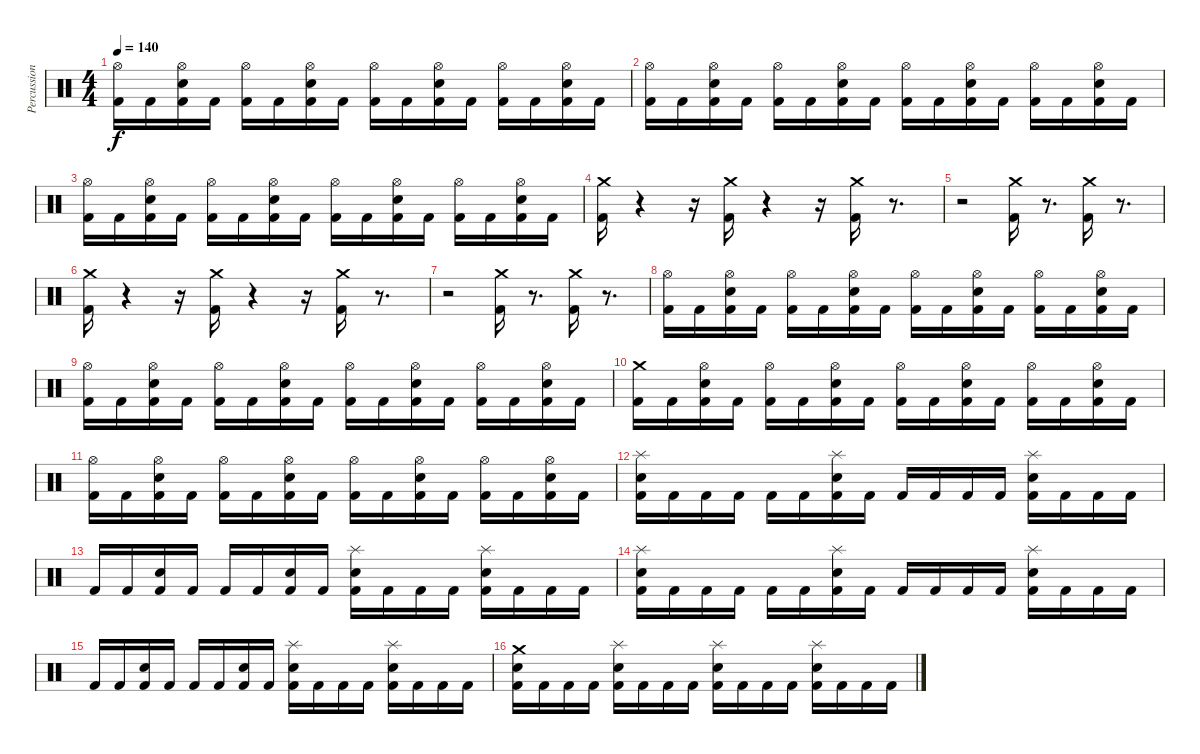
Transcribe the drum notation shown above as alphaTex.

\track ("Percussion" "Percussion") {instrument percussion}
\staff {score}
\articulation defaults
\ts (4 4)
\tempo 140
\clef neutral
\ks c
("Kick (hit) 2" "Hi-Hat (open)").16{dy f} "Kick (hit) 2".16 ("Kick (hit) 2" "Electric Snare (hit)" "Hi-Hat (open)").16 "Kick (hit) 2".16 ("Kick (hit) 2" "Hi-Hat (open)").16 "Kick (hit) 2".16 ("Kick (hit) 2" "Electric Snare (hit)" "Hi-Hat (open)").16 "Kick (hit) 2".16 ("Kick (hit) 2" "Hi-Hat (open)").16 "Kick (hit) 2".16 ("Kick (hit) 2" "Electric Snare (hit)" "Hi-Hat (open)").16 "Kick (hit) 2".16 ("Kick (hit) 2" "Hi-Hat (open)").16 "Kick (hit) 2".16 ("Kick (hit) 2" "Electric Snare (hit)" "Hi-Hat (open)").16 "Kick (hit) 2".16 |
("Kick (hit) 2" "Hi-Hat (open)").16 "Kick (hit) 2".16 ("Kick (hit) 2" "Electric Snare (hit)" "Hi-Hat (open)").16 "Kick (hit) 2".16 ("Kick (hit) 2" "Hi-Hat (open)").16 "Kick (hit) 2".16 ("Kick (hit) 2" "Electric Snare (hit)" "Hi-Hat (open)").16 "Kick (hit) 2".16 ("Kick (hit) 2" "Hi-Hat (open)").16 "Kick (hit) 2".16 ("Kick (hit) 2" "Electric Snare (hit)" "Hi-Hat (open)").16 "Kick (hit) 2".16 ("Kick (hit) 2" "Hi-Hat (open)").16 "Kick (hit) 2".16 ("Kick (hit) 2" "Electric Snare (hit)" "Hi-Hat (open)").16 "Kick (hit) 2".16 |
("Kick (hit) 2" "Hi-Hat (open)").16 "Kick (hit) 2".16 ("Kick (hit) 2" "Electric Snare (hit)" "Hi-Hat (open)").16 "Kick (hit) 2".16 ("Kick (hit) 2" "Hi-Hat (open)").16 "Kick (hit) 2".16 ("Kick (hit) 2" "Electric Snare (hit)" "Hi-Hat (open)").16 "Kick (hit) 2".16 ("Kick (hit) 2" "Hi-Hat (open)").16 "Kick (hit) 2".16 ("Kick (hit) 2" "Electric Snare (hit)" "Hi-Hat (open)").16 "Kick (hit) 2".16 ("Kick (hit) 2" "Hi-Hat (open)").16 "Kick (hit) 2".16 ("Kick (hit) 2" "Electric Snare (hit)" "Hi-Hat (open)").16 "Kick (hit) 2".16 |
("Kick (hit) 2" "Crash medium (hit)").16 r.4 r.16 ("Kick (hit) 2" "Crash medium (hit)").16 r.4 r.16 ("Kick (hit) 2" "Crash medium (hit)").16 r.8{d} |
r.2 ("Kick (hit) 2" "Crash medium (hit)").16 r.8{d} ("Kick (hit) 2" "Crash medium (hit)").16 r.8{d} |
("Kick (hit) 2" "Crash medium (hit)").16 r.4 r.16 ("Kick (hit) 2" "Crash medium (hit)").16 r.4 r.16 ("Kick (hit) 2" "Crash medium (hit)").16 r.8{d} |
r.2 ("Kick (hit) 2" "Crash medium (hit)").16 r.8{d} ("Kick (hit) 2" "Crash medium (hit)").16 r.8{d} |
("Kick (hit) 2" "Hi-Hat (open)").16 "Kick (hit) 2".16 ("Kick (hit) 2" "Electric Snare (hit)" "Hi-Hat (open)").16 "Kick (hit) 2".16 ("Kick (hit) 2" "Hi-Hat (open)").16 "Kick (hit) 2".16 ("Kick (hit) 2" "Electric Snare (hit)" "Hi-Hat (open)").16 "Kick (hit) 2".16 ("Kick (hit) 2" "Hi-Hat (open)").16 "Kick (hit) 2".16 ("Kick (hit) 2" "Electric Snare (hit)" "Hi-Hat (open)").16 "Kick (hit) 2".16 ("Kick (hit) 2" "Hi-Hat (open)").16 "Kick (hit) 2".16 ("Kick (hit) 2" "Electric Snare (hit)" "Hi-Hat (open)").16 "Kick (hit) 2".16 |
("Kick (hit) 2" "Hi-Hat (open)").16 "Kick (hit) 2".16 ("Kick (hit) 2" "Electric Snare (hit)" "Hi-Hat (open)").16 "Kick (hit) 2".16 ("Kick (hit) 2" "Hi-Hat (open)").16 "Kick (hit) 2".16 ("Kick (hit) 2" "Electric Snare (hit)" "Hi-Hat (open)").16 "Kick (hit) 2".16 ("Kick (hit) 2" "Hi-Hat (open)").16 "Kick (hit) 2".16 ("Kick (hit) 2" "Electric Snare (hit)" "Hi-Hat (open)").16 "Kick (hit) 2".16 ("Kick (hit) 2" "Hi-Hat (open)").16 "Kick (hit) 2".16 ("Kick (hit) 2" "Electric Snare (hit)" "Hi-Hat (open)").16 "Kick (hit) 2".16 |
("Kick (hit) 2" "Crash medium (hit)").16 "Kick (hit) 2".16 ("Kick (hit) 2" "Electric Snare (hit)" "Hi-Hat (open)").16 "Kick (hit) 2".16 ("Kick (hit) 2" "Hi-Hat (open)").16 "Kick (hit) 2".16 ("Kick (hit) 2" "Electric Snare (hit)" "Hi-Hat (open)").16 "Kick (hit) 2".16 ("Kick (hit) 2" "Hi-Hat (open)").16 "Kick (hit) 2".16 ("Kick (hit) 2" "Electric Snare (hit)" "Hi-Hat (open)").16 "Kick (hit) 2".16 ("Kick (hit) 2" "Hi-Hat (open)").16 "Kick (hit) 2".16 ("Kick (hit) 2" "Electric Snare (hit)" "Hi-Hat (open)").16 "Kick (hit) 2".16 |
("Kick (hit) 2" "Hi-Hat (open)").16 "Kick (hit) 2".16 ("Kick (hit) 2" "Electric Snare (hit)" "Hi-Hat (open)").16 "Kick (hit) 2".16 ("Kick (hit) 2" "Hi-Hat (open)").16 "Kick (hit) 2".16 ("Kick (hit) 2" "Electric Snare (hit)" "Hi-Hat (open)").16 "Kick (hit) 2".16 ("Kick (hit) 2" "Hi-Hat (open)").16 "Kick (hit) 2".16 ("Kick (hit) 2" "Electric Snare (hit)" "Hi-Hat (open)").16 "Kick (hit) 2".16 ("Kick (hit) 2" "Hi-Hat (open)").16 "Kick (hit) 2".16 ("Kick (hit) 2" "Electric Snare (hit)" "Hi-Hat (open)").16 "Kick (hit) 2".16 |
("Kick (hit) 2" "Electric Snare (hit)" "Splash (hit)").16 "Kick (hit) 2".16 "Kick (hit) 2".16 "Kick (hit) 2".16 "Kick (hit) 2".16 "Kick (hit) 2".16 ("Kick (hit) 2" "Electric Snare (hit)" "Splash (hit)").16 "Kick (hit) 2".16 "Kick (hit) 2".16 "Kick (hit) 2".16 "Kick (hit) 2".16 "Kick (hit) 2".16 ("Kick (hit) 2" "Electric Snare (hit)" "Splash (hit)").16 "Kick (hit) 2".16 "Kick (hit) 2".16 "Kick (hit) 2".16 |
"Kick (hit) 2".16 "Kick (hit) 2".16 ("Kick (hit) 2" "Electric Snare (hit)").16 "Kick (hit) 2".16 "Kick (hit) 2".16 "Kick (hit) 2".16 ("Kick (hit) 2" "Electric Snare (hit)").16 "Kick (hit) 2".16 ("Kick (hit) 2" "Electric Snare (hit)" "Splash (hit)").16 "Kick (hit) 2".16 "Kick (hit) 2".16 "Kick (hit) 2".16 ("Kick (hit) 2" "Electric Snare (hit)" "Splash (hit)").16 "Kick (hit) 2".16 "Kick (hit) 2".16 "Kick (hit) 2".16 |
("Kick (hit) 2" "Electric Snare (hit)" "Splash (hit)").16 "Kick (hit) 2".16 "Kick (hit) 2".16 "Kick (hit) 2".16 "Kick (hit) 2".16 "Kick (hit) 2".16 ("Kick (hit) 2" "Electric Snare (hit)" "Splash (hit)").16 "Kick (hit) 2".16 "Kick (hit) 2".16 "Kick (hit) 2".16 "Kick (hit) 2".16 "Kick (hit) 2".16 ("Kick (hit) 2" "Electric Snare (hit)" "Splash (hit)").16 "Kick (hit) 2".16 "Kick (hit) 2".16 "Kick (hit) 2".16 |
"Kick (hit) 2".16 "Kick (hit) 2".16 ("Kick (hit) 2" "Electric Snare (hit)").16 "Kick (hit) 2".16 "Kick (hit) 2".16 "Kick (hit) 2".16 ("Kick (hit) 2" "Electric Snare (hit)").16 "Kick (hit) 2".16 ("Kick (hit) 2" "Electric Snare (hit)" "Splash (hit)").16 "Kick (hit) 2".16 "Kick (hit) 2".16 "Kick (hit) 2".16 ("Kick (hit) 2" "Electric Snare (hit)" "Splash (hit)").16 "Kick (hit) 2".16 "Kick (hit) 2".16 "Kick (hit) 2".16 |
("Kick (hit) 2" "Electric Snare (hit)" "Crash medium (hit)").16 "Kick (hit) 2".16 "Kick (hit) 2".16 "Kick (hit) 2".16 ("Kick (hit) 2" "Electric Snare (hit)" "Splash (hit)").16 "Kick (hit) 2".16 "Kick (hit) 2".16 "Kick (hit) 2".16 ("Kick (hit) 2" "Electric Snare (hit)" "Splash (hit)").16 "Kick (hit) 2".16 "Kick (hit) 2".16 "Kick (hit) 2".16 ("Kick (hit) 2" "Electric Snare (hit)" "Splash (hit)").16 "Kick (hit) 2".16 "Kick (hit) 2".16 "Kick (hit) 2".16
